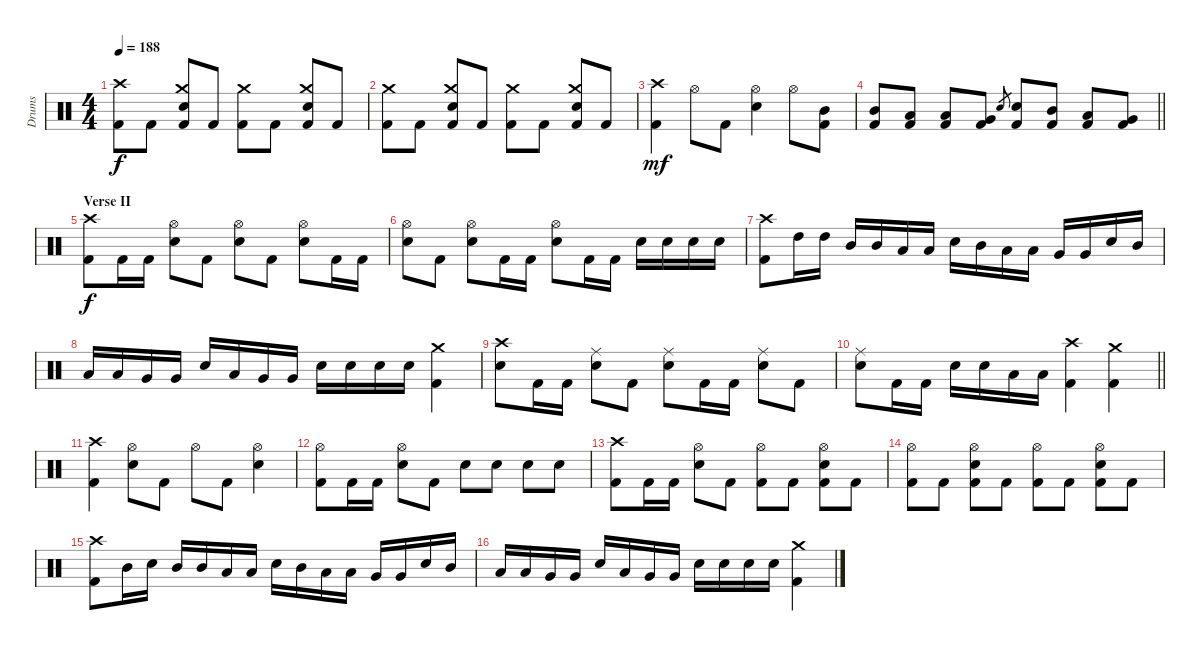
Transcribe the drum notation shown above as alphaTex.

\track ("Drums" "Drums") {instrument percussion}
\staff {score}
\articulation defaults
\ts (4 4)
\tempo 188
\clef neutral
\ks c
("Crash high (hit)" "Kick (hit) 2").8{dy f} "Kick (hit) 2".8 ("Crash medium (hit)" "Electric Snare (hit)" "Kick (hit) 2").8 "Kick (hit) 2".8 ("Crash medium (hit)" "Kick (hit) 2").8 "Kick (hit) 2".8 ("Crash medium (hit)" "Electric Snare (hit)" "Kick (hit) 2").8 "Kick (hit) 2".8 |
("Crash medium (hit)" "Kick (hit) 2").8 "Kick (hit) 2".8 ("Crash medium (hit)" "Electric Snare (hit)" "Kick (hit) 2").8 "Kick (hit) 2".8 ("Crash medium (hit)" "Kick (hit) 2").8 "Kick (hit) 2".8 ("Crash medium (hit)" "Electric Snare (hit)" "Kick (hit) 2").8 "Kick (hit) 2".8 |
("Crash high (hit)" "Kick (hit) 2").4{dy mf} "Hi-Hat (open)".8 "Kick (hit) 2".8 ("Hi-Hat (open)" "Electric Snare (hit)").4 "Hi-Hat (open)".8 ("Mid Tom (hit)" "Kick (hit) 2").8 |
\barLineRight lightlight
("Mid Tom (hit)" "Kick (hit) 2").8 ("Low Tom (hit)" "Kick (hit) 2").8 ("Low Tom (hit)" "Kick (hit) 2").8 ("Very Low Tom (hit)" "Kick (hit) 2").8 "Electric Snare (hit)".8{gr} ("Electric Snare (hit)" "Kick (hit) 2").8 ("Mid Tom (hit)" "Kick (hit) 2").8 ("Low Tom (hit)" "Kick (hit) 2").8 ("Very Low Tom (hit)" "Kick (hit) 2").8 |
\section ("" "Verse II")
("Crash high (hit)" "Kick (hit) 2").8{dy f} "Kick (hit) 2".16 "Kick (hit) 2".16 ("Hi-Hat (open)" "Electric Snare (hit)").8 "Kick (hit) 2".8 ("Hi-Hat (open)" "Electric Snare (hit)").8 "Kick (hit) 2".8 ("Hi-Hat (open)" "Electric Snare (hit)").8 "Kick (hit) 2".16 "Kick (hit) 2".16 |
("Hi-Hat (open)" "Electric Snare (hit)").8 "Kick (hit) 2".8 ("Hi-Hat (open)" "Electric Snare (hit)").8 "Kick (hit) 2".16 "Kick (hit) 2".16 ("Hi-Hat (open)" "Electric Snare (hit)").8 "Kick (hit) 2".16 "Kick (hit) 2".16 "Electric Snare (hit)".16 "Electric Snare (hit)".16 "Electric Snare (hit)".16 "Electric Snare (hit)".16 |
("Crash high (hit)" "Kick (hit) 2").8 "High Tom (hit)".16 "High Tom (hit)".16 "Mid Tom (hit)".16 "Mid Tom (hit)".16 "Low Tom (hit)".16 "Low Tom (hit)".16 "Electric Snare (hit)".16 "Mid Tom (hit)".16 "Low Tom (hit)".16 "Low Tom (hit)".16 "Very Low Tom (hit)".16 "Very Low Tom (hit)".16 "Electric Snare (hit)".16 "Mid Tom (hit)".16 |
"Low Tom (hit)".16 "Low Tom (hit)".16 "Very Low Tom (hit)".16 "Very Low Tom (hit)".16 "Electric Snare (hit)".16 "Low Tom (hit)".16 "Very Low Tom (hit)".16 "Very Low Tom (hit)".16 "Electric Snare (hit)".16 "Electric Snare (hit)".16 "Electric Snare (hit)".16 "Electric Snare (hit)".16 ("Crash medium (hit)" "Kick (hit) 2").4 |
("Crash high (hit)" "Electric Snare (hit)").8 "Kick (hit) 2".16 "Kick (hit) 2".16 ("Ride (middle)" "Electric Snare (hit)").8 "Kick (hit) 2".8 ("Ride (middle)" "Electric Snare (hit)").8 "Kick (hit) 2".16 "Kick (hit) 2".16 ("Ride (middle)" "Electric Snare (hit)").8 "Kick (hit) 2".8 |
\barLineRight lightlight
("Ride (middle)" "Electric Snare (hit)").8 "Kick (hit) 2".16 "Kick (hit) 2".16 "Electric Snare (hit)".16 "Electric Snare (hit)".16 "Low Tom (hit)".16 "Low Tom (hit)".16 ("Crash high (hit)" "Kick (hit) 2").4 ("Crash medium (hit)" "Kick (hit) 2").4 |
("Crash high (hit)" "Kick (hit) 2").4 ("Hi-Hat (open)" "Electric Snare (hit)").8 "Kick (hit) 2".8 "Hi-Hat (open)".8 "Kick (hit) 2".8 ("Hi-Hat (open)" "Electric Snare (hit)").4 |
("Hi-Hat (open)" "Kick (hit) 2").8 "Kick (hit) 2".16 "Kick (hit) 2".16 ("Hi-Hat (open)" "Electric Snare (hit)").8 "Kick (hit) 2".8 "Electric Snare (hit)".8 "Electric Snare (hit)".8 "Electric Snare (hit)".8 "Electric Snare (hit)".8 |
("Crash high (hit)" "Kick (hit) 2").8 "Kick (hit) 2".16 "Kick (hit) 2".16 ("Hi-Hat (open)" "Electric Snare (hit)").8 "Kick (hit) 2".8 ("Hi-Hat (open)" "Kick (hit) 2").8 "Kick (hit) 2".8 ("Hi-Hat (open)" "Electric Snare (hit)" "Kick (hit) 2").8 "Kick (hit) 2".8 |
("Hi-Hat (open)" "Kick (hit) 2").8 "Kick (hit) 2".8 ("Hi-Hat (open)" "Electric Snare (hit)" "Kick (hit) 2").8 "Kick (hit) 2".8 ("Hi-Hat (open)" "Kick (hit) 2").8 "Kick (hit) 2".8 ("Hi-Hat (open)" "Electric Snare (hit)" "Kick (hit) 2").8 "Kick (hit) 2".8 |
("Crash high (hit)" "Kick (hit) 2").8 "Mid Tom (hit)".16 "Electric Snare (hit)".16 "Mid Tom (hit)".16 "Mid Tom (hit)".16 "Low Tom (hit)".16 "Low Tom (hit)".16 "Electric Snare (hit)".16 "Mid Tom (hit)".16 "Low Tom (hit)".16 "Low Tom (hit)".16 "Very Low Tom (hit)".16 "Very Low Tom (hit)".16 "Electric Snare (hit)".16 "Mid Tom (hit)".16 |
"Low Tom (hit)".16 "Low Tom (hit)".16 "Very Low Tom (hit)".16 "Very Low Tom (hit)".16 "Electric Snare (hit)".16 "Low Tom (hit)".16 "Very Low Tom (hit)".16 "Very Low Tom (hit)".16 "Electric Snare (hit)".16 "Electric Snare (hit)".16 "Electric Snare (hit)".16 "Electric Snare (hit)".16 ("Crash medium (hit)" "Kick (hit) 2").4
